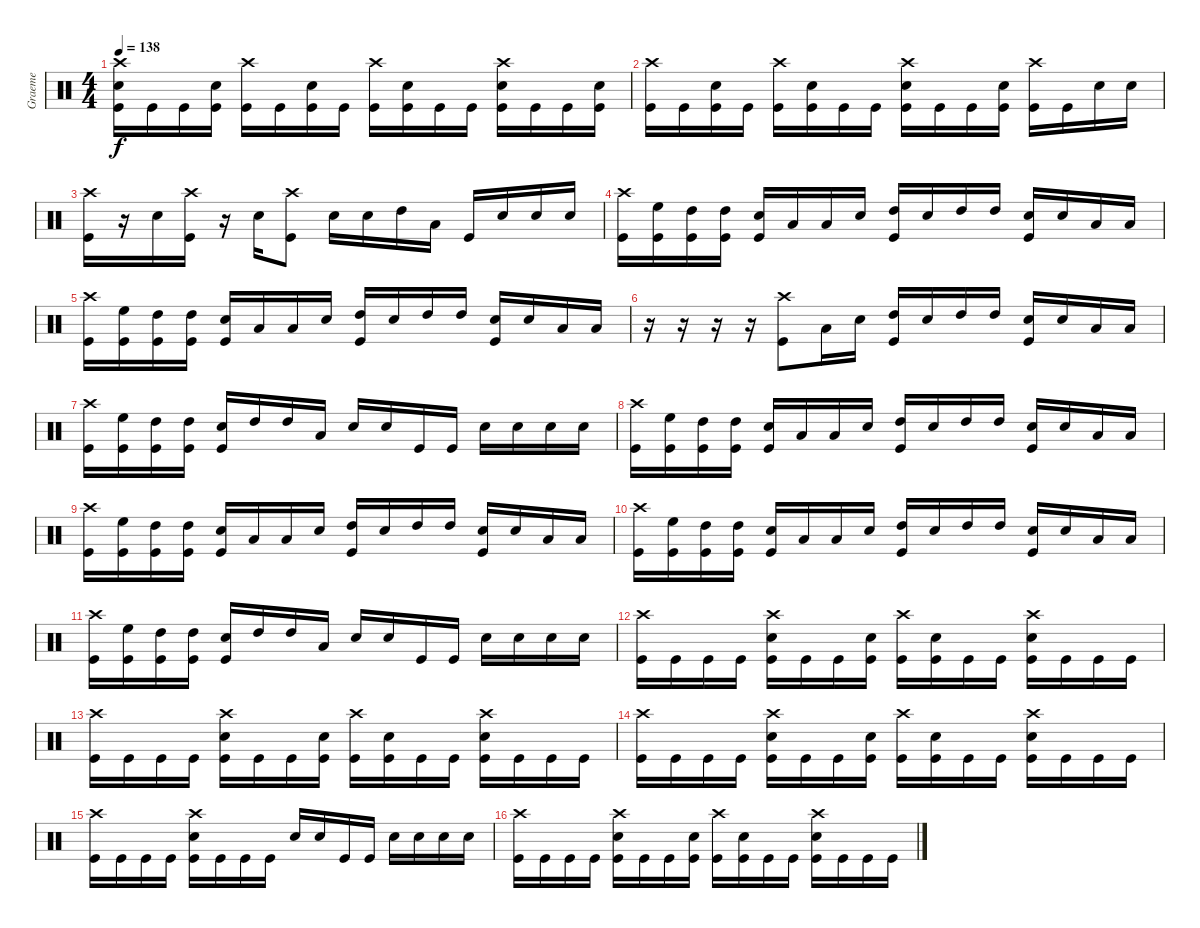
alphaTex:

\track ("Graeme" "Graeme") {instrument percussion}
\staff {score}
\articulation defaults
\ts (4 4)
\tempo 138
\clef neutral
\ks c
("Crash high (hit)" "Snare (hit) 2" "Kick (hit)").16{dy f} "Kick (hit)".16 "Kick (hit)".16 ("Snare (hit) 2" "Kick (hit)").16 ("Crash high (hit)" "Kick (hit)").16 "Kick (hit)".16 ("Snare (hit) 2" "Kick (hit)").16 "Kick (hit)".16 ("Crash high (hit)" "Kick (hit)").16 ("Snare (hit) 2" "Kick (hit)").16 "Kick (hit)".16 "Kick (hit)".16 ("Crash high (hit)" "Snare (hit) 2" "Kick (hit)").16 "Kick (hit)".16 "Kick (hit)".16 ("Snare (hit) 2" "Kick (hit)").16 |
("Crash high (hit)" "Kick (hit)").16 "Kick (hit)".16 ("Snare (hit) 2" "Kick (hit)").16 "Kick (hit)".16 ("Crash high (hit)" "Kick (hit)").16 ("Snare (hit) 2" "Kick (hit)").16 "Kick (hit)".16 "Kick (hit)".16 ("Crash high (hit)" "Snare (hit) 2" "Kick (hit)").16 "Kick (hit)".16 "Kick (hit)".16 ("Snare (hit) 2" "Kick (hit)").16 ("Crash high (hit)" "Kick (hit)").16 "Kick (hit)".16 "Snare (hit) 2".16 "Snare (hit) 2".16 |
("Crash high (hit)" "Kick (hit)").16 r.16 "Snare (hit) 2".16 ("Crash high (hit)" "Kick (hit)").16 r.16 "Snare (hit) 2".16 ("Crash high (hit)" "Kick (hit)").8 "Snare (hit) 2".16 "Snare (hit) 2".16 "High Tom (hit)".16 "Low Floor Tom (hit)".16 "Kick (hit)".16 "Snare (hit) 2".16 "Snare (hit) 2".16 "Snare (hit) 2".16 |
("Crash high (hit)" "Kick (hit)").16 ("High Floor Tom (hit)" "Kick (hit)").16 ("High Tom (hit)" "Kick (hit)").16 ("High Tom (hit)" "Kick (hit)").16 ("Snare (hit) 2" "Kick (hit)").16 "Low Floor Tom (hit)".16 "Low Floor Tom (hit)".16 "Snare (hit) 2".16 ("High Tom (hit)" "Kick (hit)").16 "Snare (hit) 2".16 "High Tom (hit)".16 "High Tom (hit)".16 ("Snare (hit) 2" "Kick (hit)").16 "Snare (hit) 2".16 "Low Floor Tom (hit)".16 "Low Floor Tom (hit)".16 |
("Crash high (hit)" "Kick (hit)").16 ("High Floor Tom (hit)" "Kick (hit)").16 ("High Tom (hit)" "Kick (hit)").16 ("High Tom (hit)" "Kick (hit)").16 ("Snare (hit) 2" "Kick (hit)").16 "Low Floor Tom (hit)".16 "Low Floor Tom (hit)".16 "Snare (hit) 2".16 ("High Tom (hit)" "Kick (hit)").16 "Snare (hit) 2".16 "High Tom (hit)".16 "High Tom (hit)".16 ("Snare (hit) 2" "Kick (hit)").16 "Snare (hit) 2".16 "Low Floor Tom (hit)".16 "Low Floor Tom (hit)".16 |
r.16 r.16 r.16 r.16 ("Crash high (hit)" "Kick (hit)").8 "Low Floor Tom (hit)".16 "Snare (hit) 2".16 ("High Tom (hit)" "Kick (hit)").16 "Snare (hit) 2".16 "High Tom (hit)".16 "High Tom (hit)".16 ("Snare (hit) 2" "Kick (hit)").16 "Snare (hit) 2".16 "Low Floor Tom (hit)".16 "Low Floor Tom (hit)".16 |
("Crash high (hit)" "Kick (hit)").16 ("High Floor Tom (hit)" "Kick (hit)").16 ("High Tom (hit)" "Kick (hit)").16 ("High Tom (hit)" "Kick (hit)").16 ("Snare (hit) 2" "Kick (hit)").16 "High Tom (hit)".16 "High Tom (hit)".16 "Low Floor Tom (hit)".16 "Snare (hit) 2".16 "Snare (hit) 2".16 "Kick (hit)".16 "Kick (hit)".16 "Snare (hit) 2".16 "Snare (hit) 2".16 "Snare (hit) 2".16 "Snare (hit) 2".16 |
("Crash high (hit)" "Kick (hit)").16 ("High Floor Tom (hit)" "Kick (hit)").16 ("High Tom (hit)" "Kick (hit)").16 ("High Tom (hit)" "Kick (hit)").16 ("Snare (hit) 2" "Kick (hit)").16 "Low Floor Tom (hit)".16 "Low Floor Tom (hit)".16 "Snare (hit) 2".16 ("High Tom (hit)" "Kick (hit)").16 "Snare (hit) 2".16 "High Tom (hit)".16 "High Tom (hit)".16 ("Snare (hit) 2" "Kick (hit)").16 "Snare (hit) 2".16 "Low Floor Tom (hit)".16 "Low Floor Tom (hit)".16 |
("Crash high (hit)" "Kick (hit)").16 ("High Floor Tom (hit)" "Kick (hit)").16 ("High Tom (hit)" "Kick (hit)").16 ("High Tom (hit)" "Kick (hit)").16 ("Snare (hit) 2" "Kick (hit)").16 "Low Floor Tom (hit)".16 "Low Floor Tom (hit)".16 "Snare (hit) 2".16 ("High Tom (hit)" "Kick (hit)").16 "Snare (hit) 2".16 "High Tom (hit)".16 "High Tom (hit)".16 ("Snare (hit) 2" "Kick (hit)").16 "Snare (hit) 2".16 "Low Floor Tom (hit)".16 "Low Floor Tom (hit)".16 |
("Crash high (hit)" "Kick (hit)").16 ("High Floor Tom (hit)" "Kick (hit)").16 ("High Tom (hit)" "Kick (hit)").16 ("High Tom (hit)" "Kick (hit)").16 ("Snare (hit) 2" "Kick (hit)").16 "Low Floor Tom (hit)".16 "Low Floor Tom (hit)".16 "Snare (hit) 2".16 ("High Tom (hit)" "Kick (hit)").16 "Snare (hit) 2".16 "High Tom (hit)".16 "High Tom (hit)".16 ("Snare (hit) 2" "Kick (hit)").16 "Snare (hit) 2".16 "Low Floor Tom (hit)".16 "Low Floor Tom (hit)".16 |
("Crash high (hit)" "Kick (hit)").16 ("High Floor Tom (hit)" "Kick (hit)").16 ("High Tom (hit)" "Kick (hit)").16 ("High Tom (hit)" "Kick (hit)").16 ("Snare (hit) 2" "Kick (hit)").16 "High Tom (hit)".16 "High Tom (hit)".16 "Low Floor Tom (hit)".16 "Snare (hit) 2".16 "Snare (hit) 2".16 "Kick (hit)".16 "Kick (hit)".16 "Snare (hit) 2".16 "Snare (hit) 2".16 "Snare (hit) 2".16 "Snare (hit) 2".16 |
("Crash high (hit)" "Kick (hit)").16 "Kick (hit)".16 "Kick (hit)".16 "Kick (hit)".16 ("Crash high (hit)" "Snare (hit) 2" "Kick (hit)").16 "Kick (hit)".16 "Kick (hit)".16 ("Snare (hit) 2" "Kick (hit)").16 ("Crash high (hit)" "Kick (hit)").16 ("Snare (hit) 2" "Kick (hit)").16 "Kick (hit)".16 "Kick (hit)".16 ("Crash high (hit)" "Snare (hit) 2" "Kick (hit)").16 "Kick (hit)".16 "Kick (hit)".16 "Kick (hit)".16 |
("Crash high (hit)" "Kick (hit)").16 "Kick (hit)".16 "Kick (hit)".16 "Kick (hit)".16 ("Crash high (hit)" "Snare (hit) 2" "Kick (hit)").16 "Kick (hit)".16 "Kick (hit)".16 ("Snare (hit) 2" "Kick (hit)").16 ("Crash high (hit)" "Kick (hit)").16 ("Snare (hit) 2" "Kick (hit)").16 "Kick (hit)".16 "Kick (hit)".16 ("Crash high (hit)" "Snare (hit) 2" "Kick (hit)").16 "Kick (hit)".16 "Kick (hit)".16 "Kick (hit)".16 |
("Crash high (hit)" "Kick (hit)").16 "Kick (hit)".16 "Kick (hit)".16 "Kick (hit)".16 ("Crash high (hit)" "Snare (hit) 2" "Kick (hit)").16 "Kick (hit)".16 "Kick (hit)".16 ("Snare (hit) 2" "Kick (hit)").16 ("Crash high (hit)" "Kick (hit)").16 ("Snare (hit) 2" "Kick (hit)").16 "Kick (hit)".16 "Kick (hit)".16 ("Crash high (hit)" "Snare (hit) 2" "Kick (hit)").16 "Kick (hit)".16 "Kick (hit)".16 "Kick (hit)".16 |
("Crash high (hit)" "Kick (hit)").16 "Kick (hit)".16 "Kick (hit)".16 "Kick (hit)".16 ("Crash high (hit)" "Snare (hit) 2" "Kick (hit)").16 "Kick (hit)".16 "Kick (hit)".16 "Kick (hit)".16 "Snare (hit) 2".16 "Snare (hit) 2".16 "Kick (hit)".16 "Kick (hit)".16 "Snare (hit) 2".16 "Snare (hit) 2".16 "Snare (hit) 2".16 "Snare (hit) 2".16 |
("Crash high (hit)" "Kick (hit)").16 "Kick (hit)".16 "Kick (hit)".16 "Kick (hit)".16 ("Crash high (hit)" "Snare (hit) 2" "Kick (hit)").16 "Kick (hit)".16 "Kick (hit)".16 ("Snare (hit) 2" "Kick (hit)").16 ("Crash high (hit)" "Kick (hit)").16 ("Snare (hit) 2" "Kick (hit)").16 "Kick (hit)".16 "Kick (hit)".16 ("Crash high (hit)" "Snare (hit) 2" "Kick (hit)").16 "Kick (hit)".16 "Kick (hit)".16 "Kick (hit)".16
